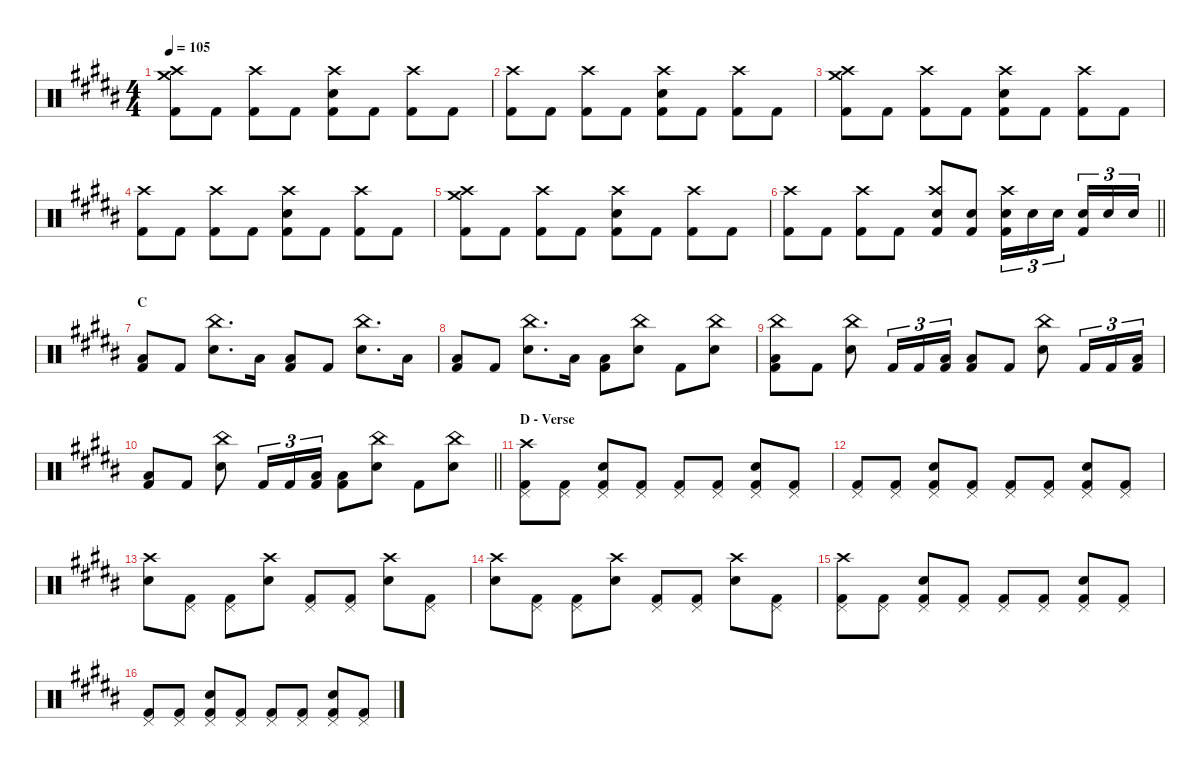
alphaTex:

\defaultSystemsLayout 4
\hideDynamics
\bracketExtendMode nobrackets
\singleTrackTrackNamePolicy hidden
\multiTrackTrackNamePolicy hidden
\firstSystemTrackNameMode fullname
\firstSystemTrackNameOrientation horizontal
\otherSystemsTrackNameOrientation horizontal
\track ("Percussions" "drm.") {instrument percussion}
\staff {score}
\articulation defaults
\ts (4 4)
\tempo 105
\clef neutral
\ks b
("Crash medium (hit)"{acc bb} "Crash high (hit)"{acc bb} "Kick (hit) 2"{acc bb}).8{dy f beam Down} "Kick (hit) 2"{acc bb}.8{beam Down} ("Crash high (hit)"{acc bb} "Kick (hit) 2"{acc bb}).8{beam Down} "Kick (hit) 2"{acc bb}.8{beam Down} ("Crash high (hit)"{acc bb} "Snare (hit) 2"{acc bb} "Kick (hit) 2"{acc bb}).8{beam Down} "Kick (hit) 2"{acc bb}.8{beam Down} ("Crash high (hit)"{acc bb} "Kick (hit) 2"{acc bb}).8{beam Down} "Kick (hit) 2"{acc bb}.8{beam Down} |
("Crash high (hit)"{acc bb} "Kick (hit) 2"{acc bb}).8{beam Down} "Kick (hit) 2"{acc bb}.8{beam Down} ("Crash high (hit)"{acc bb} "Kick (hit) 2"{acc bb}).8{beam Down} "Kick (hit) 2"{acc bb}.8{beam Down} ("Crash high (hit)"{acc bb} "Snare (hit) 2"{acc bb} "Kick (hit) 2"{acc bb}).8{beam Down} "Kick (hit) 2"{acc bb}.8{beam Down} ("Crash high (hit)"{acc bb} "Kick (hit) 2"{acc bb}).8{beam Down} "Kick (hit) 2"{acc bb}.8{beam Down} |
("Crash medium (hit)"{acc bb} "Crash high (hit)"{acc bb} "Kick (hit) 2"{acc bb}).8{beam Down} "Kick (hit) 2"{acc bb}.8{beam Down} ("Crash high (hit)"{acc bb} "Kick (hit) 2"{acc bb}).8{beam Down} "Kick (hit) 2"{acc bb}.8{beam Down} ("Crash high (hit)"{acc bb} "Snare (hit) 2"{acc bb} "Kick (hit) 2"{acc bb}).8{beam Down} "Kick (hit) 2"{acc bb}.8{beam Down} ("Crash high (hit)"{acc bb} "Kick (hit) 2"{acc bb}).8{beam Down} "Kick (hit) 2"{acc bb}.8{beam Down} |
("Crash high (hit)"{acc bb} "Kick (hit) 2"{acc bb}).8{beam Down} "Kick (hit) 2"{acc bb}.8{beam Down} ("Crash high (hit)"{acc bb} "Kick (hit) 2"{acc bb}).8{beam Down} "Kick (hit) 2"{acc bb}.8{beam Down} ("Crash high (hit)"{acc bb} "Snare (hit) 2"{acc bb} "Kick (hit) 2"{acc bb}).8{beam Down} "Kick (hit) 2"{acc bb}.8{beam Down} ("Crash high (hit)"{acc bb} "Kick (hit) 2"{acc bb}).8{beam Down} "Kick (hit) 2"{acc bb}.8{beam Down} |
("Crash medium (hit)"{acc bb} "Crash high (hit)"{acc bb} "Kick (hit) 2"{acc bb}).8{beam Down} "Kick (hit) 2"{acc bb}.8{beam Down} ("Crash high (hit)"{acc bb} "Kick (hit) 2"{acc bb}).8{beam Down} "Kick (hit) 2"{acc bb}.8{beam Down} ("Crash high (hit)"{acc bb} "Snare (hit) 2"{acc bb} "Kick (hit) 2"{acc bb}).8{beam Down} "Kick (hit) 2"{acc bb}.8{beam Down} ("Crash high (hit)"{acc bb} "Kick (hit) 2"{acc bb}).8{beam Down} "Kick (hit) 2"{acc bb}.8{beam Down} |
\barLineRight lightlight
("Crash high (hit)"{acc bb} "Kick (hit) 2"{acc bb}).8{beam Down} "Kick (hit) 2"{acc bb}.8{beam Down} ("Crash high (hit)"{acc bb} "Kick (hit) 2"{acc bb}).8{beam Down} "Kick (hit) 2"{acc bb}.8{beam Down} ("Crash high (hit)"{acc bb} "Snare (hit) 2"{acc bb} "Kick (hit) 2"{acc bb}).8{beam Up} ("Snare (hit) 2"{acc bb} "Kick (hit) 2"{acc bb}).8{beam Up} ("Crash high (hit)"{acc bb} "Snare (hit) 2"{acc bb} "Kick (hit) 2"{acc bb}).16{tu (3 2) beam Down} "Snare (hit) 2"{acc bb}.16{tu (3 2) beam Down} "Snare (hit) 2"{acc bb}.16{tu (3 2) beam Down} ("Snare (hit) 2"{acc bb} "Kick (hit) 2"{acc bb}).16{tu (3 2) beam Up} "Snare (hit) 2"{acc bb}.16{tu (3 2) beam Up} "Snare (hit) 2"{acc bb}.16{tu (3 2) beam Up} |
\section ("" "C")
("Low Tom (hit)"{acc bb} "Kick (hit) 2"{acc bb}).8{beam Up} "Kick (hit) 2"{acc bb}.8{beam Up} ("China (hit)"{acc bb} "Snare (hit) 2"{acc bb}).8{d beam Down} "Low Tom (hit)"{acc bb}.16{beam Down} ("Low Tom (hit)"{acc bb} "Kick (hit) 2"{acc bb}).8{beam Up} "Kick (hit) 2"{acc bb}.8{beam Up} ("China (hit)"{acc bb} "Snare (hit) 2"{acc bb}).8{d beam Down} "Low Tom (hit)"{acc bb}.16{beam Down} |
("Low Tom (hit)"{acc bb} "Kick (hit) 2"{acc bb}).8{beam Up} "Kick (hit) 2"{acc bb}.8{beam Up} ("China (hit)"{acc bb} "Snare (hit) 2"{acc bb}).8{d beam Down} "Low Tom (hit)"{acc bb}.16{beam Down} ("Low Tom (hit)"{acc bb} "Kick (hit) 2"{acc bb}).8{beam Down} ("China (hit)"{acc bb} "Snare (hit) 2"{acc bb}).8{beam Down} "Kick (hit) 2"{acc bb}.8{beam Down} ("China (hit)"{acc bb} "Snare (hit) 2"{acc bb}).8{beam Down} |
("China (hit)"{acc bb} "Low Tom (hit)"{acc bb} "Kick (hit) 2"{acc bb}).8{beam Down} "Kick (hit) 2"{acc bb}.8{beam Down} ("China (hit)"{acc bb} "Snare (hit) 2"{acc bb}).8{beam Down} "Kick (hit) 2"{acc bb}.16{tu (3 2) dy fff beam Up} "Kick (hit) 2"{acc bb}.16{tu (3 2) beam Up} ("Low Tom (hit)"{acc bb} "Kick (hit) 2"{acc bb}).16{tu (3 2) dy f beam Up} ("Low Tom (hit)"{acc bb} "Kick (hit) 2"{acc bb}).8{beam Up} "Kick (hit) 2"{acc bb}.8{beam Up} ("China (hit)"{acc bb} "Snare (hit) 2"{acc bb}).8{beam Down} "Kick (hit) 2"{acc bb}.16{tu (3 2) dy fff beam Up} "Kick (hit) 2"{acc bb}.16{tu (3 2) beam Up} ("Low Tom (hit)"{acc bb} "Kick (hit) 2"{acc bb}).16{tu (3 2) dy f beam Up} |
\barLineRight lightlight
("Low Tom (hit)"{acc bb} "Kick (hit) 2"{acc bb}).8{beam Up} "Kick (hit) 2"{acc bb}.8{dy fff beam Up} ("China (hit)"{acc bb} "Snare (hit) 2"{acc bb}).8{dy f beam Down} "Kick (hit) 2"{acc bb}.16{tu (3 2) dy fff beam Up} "Kick (hit) 2"{acc bb}.16{tu (3 2) beam Up} ("Low Tom (hit)"{acc bb} "Kick (hit) 2"{acc bb}).16{tu (3 2) dy f beam Up} ("Low Tom (hit)"{acc bb} "Kick (hit) 2"{acc bb}).8{beam Down} ("China (hit)"{acc bb} "Snare (hit) 2"{acc bb}).8{beam Down} "Kick (hit) 2"{acc bb}.8{beam Down} ("China (hit)"{acc bb} "Snare (hit) 2"{acc bb}).8{beam Down} |
\section ("" "D - Verse")
("Crash high (hit)"{acc bb} "Pedal Hi-Hat (hit)"{acc bb} "Kick (hit) 2"{acc bb}).8{beam Down} ("Pedal Hi-Hat (hit)"{acc bb} "Kick (hit) 2"{acc bb}).8{beam Down} ("Pedal Hi-Hat (hit)"{acc bb} "Snare (hit) 2"{acc bb} "Kick (hit) 2"{acc bb}).8{beam Up} ("Pedal Hi-Hat (hit)"{acc bb} "Kick (hit) 2"{acc bb}).8{beam Up} ("Pedal Hi-Hat (hit)"{acc bb} "Kick (hit) 2"{acc bb}).8{beam Up} ("Pedal Hi-Hat (hit)"{acc bb} "Kick (hit) 2"{acc bb}).8{beam Up} ("Pedal Hi-Hat (hit)"{acc bb} "Snare (hit) 2"{acc bb} "Kick (hit) 2"{acc bb}).8{beam Up} ("Pedal Hi-Hat (hit)"{acc bb} "Kick (hit) 2"{acc bb}).8{beam Up} |
("Pedal Hi-Hat (hit)"{acc bb} "Kick (hit) 2"{acc bb}).8{beam Up} ("Pedal Hi-Hat (hit)"{acc bb} "Kick (hit) 2"{acc bb}).8{beam Up} ("Pedal Hi-Hat (hit)"{acc bb} "Snare (hit) 2"{acc bb} "Kick (hit) 2"{acc bb}).8{beam Up} ("Pedal Hi-Hat (hit)"{acc bb} "Kick (hit) 2"{acc bb}).8{beam Up} ("Pedal Hi-Hat (hit)"{acc bb} "Kick (hit) 2"{acc bb}).8{beam Up} ("Pedal Hi-Hat (hit)"{acc bb} "Kick (hit) 2"{acc bb}).8{beam Up} ("Pedal Hi-Hat (hit)"{acc bb} "Snare (hit) 2"{acc bb} "Kick (hit) 2"{acc bb}).8{beam Up} ("Pedal Hi-Hat (hit)"{acc bb} "Kick (hit) 2"{acc bb}).8{beam Up} |
("Crash high (hit)"{acc bb} "Snare (hit) 2"{acc bb}).8{beam Down} ("Pedal Hi-Hat (hit)"{acc bb} "Kick (hit) 2"{acc bb}).8{beam Down} ("Pedal Hi-Hat (hit)"{acc bb} "Kick (hit) 2"{acc bb}).8{beam Down} ("Crash high (hit)"{acc bb} "Snare (hit) 2"{acc bb}).8{beam Down} ("Pedal Hi-Hat (hit)"{acc bb} "Kick (hit) 2"{acc bb}).8{beam Up} ("Pedal Hi-Hat (hit)"{acc bb} "Kick (hit) 2"{acc bb}).8{beam Up} ("Crash high (hit)"{acc bb} "Snare (hit) 2"{acc bb}).8{beam Down} ("Pedal Hi-Hat (hit)"{acc bb} "Kick (hit) 2"{acc bb}).8{beam Down} |
("Crash high (hit)"{acc bb} "Snare (hit) 2"{acc bb}).8{beam Down} ("Pedal Hi-Hat (hit)"{acc bb} "Kick (hit) 2"{acc bb}).8{beam Down} ("Pedal Hi-Hat (hit)"{acc bb} "Kick (hit) 2"{acc bb}).8{beam Down} ("Crash high (hit)"{acc bb} "Snare (hit) 2"{acc bb}).8{beam Down} ("Pedal Hi-Hat (hit)"{acc bb} "Kick (hit) 2"{acc bb}).8{beam Up} ("Pedal Hi-Hat (hit)"{acc bb} "Kick (hit) 2"{acc bb}).8{beam Up} ("Crash high (hit)"{acc bb} "Snare (hit) 2"{acc bb}).8{beam Down} ("Pedal Hi-Hat (hit)"{acc bb} "Kick (hit) 2"{acc bb}).8{beam Down} |
("Crash high (hit)"{acc bb} "Pedal Hi-Hat (hit)"{acc bb} "Kick (hit) 2"{acc bb}).8{beam Down} ("Pedal Hi-Hat (hit)"{acc bb} "Kick (hit) 2"{acc bb}).8{beam Down} ("Pedal Hi-Hat (hit)"{acc bb} "Snare (hit) 2"{acc bb} "Kick (hit) 2"{acc bb}).8{beam Up} ("Pedal Hi-Hat (hit)"{acc bb} "Kick (hit) 2"{acc bb}).8{beam Up} ("Pedal Hi-Hat (hit)"{acc bb} "Kick (hit) 2"{acc bb}).8{beam Up} ("Pedal Hi-Hat (hit)"{acc bb} "Kick (hit) 2"{acc bb}).8{beam Up} ("Pedal Hi-Hat (hit)"{acc bb} "Snare (hit) 2"{acc bb} "Kick (hit) 2"{acc bb}).8{beam Up} ("Pedal Hi-Hat (hit)"{acc bb} "Kick (hit) 2"{acc bb}).8{beam Up} |
("Pedal Hi-Hat (hit)"{acc bb} "Kick (hit) 2"{acc bb}).8{beam Up} ("Pedal Hi-Hat (hit)"{acc bb} "Kick (hit) 2"{acc bb}).8{beam Up} ("Pedal Hi-Hat (hit)"{acc bb} "Snare (hit) 2"{acc bb} "Kick (hit) 2"{acc bb}).8{beam Up} ("Pedal Hi-Hat (hit)"{acc bb} "Kick (hit) 2"{acc bb}).8{beam Up} ("Pedal Hi-Hat (hit)"{acc bb} "Kick (hit) 2"{acc bb}).8{beam Up} ("Pedal Hi-Hat (hit)"{acc bb} "Kick (hit) 2"{acc bb}).8{beam Up} ("Pedal Hi-Hat (hit)"{acc bb} "Snare (hit) 2"{acc bb} "Kick (hit) 2"{acc bb}).8{beam Up} ("Pedal Hi-Hat (hit)"{acc bb} "Kick (hit) 2"{acc bb}).8{beam Up}
